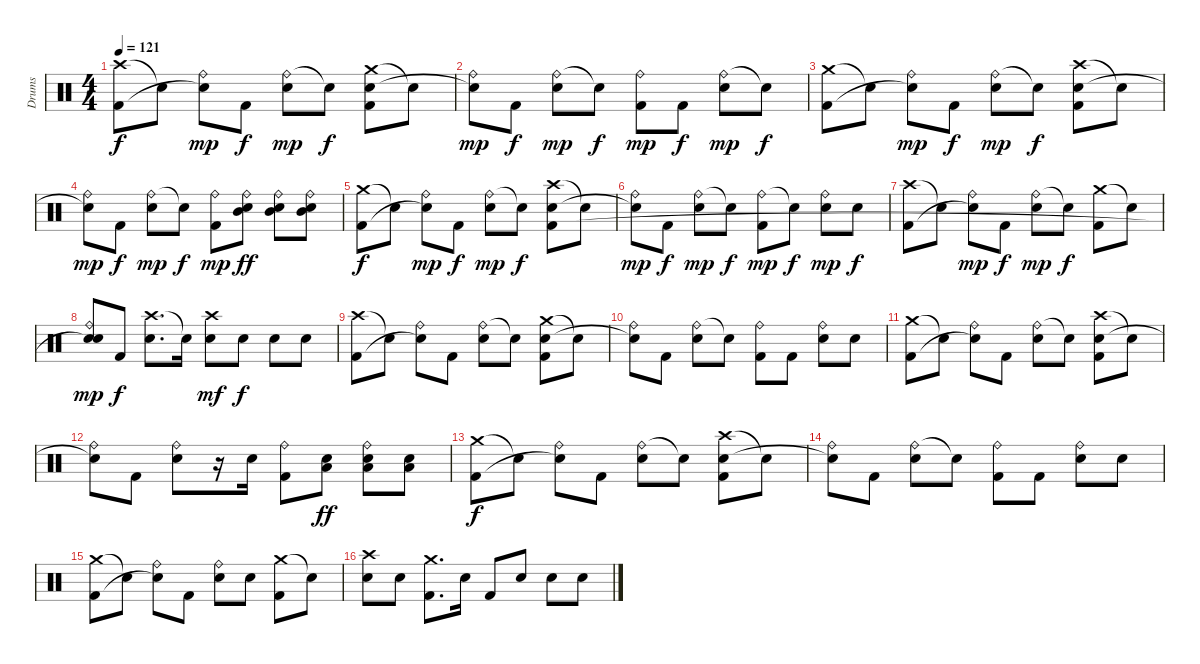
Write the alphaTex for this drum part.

\track ("Drums" "Drums") {instrument percussion}
\staff {score}
\articulation defaults
\ts (4 4)
\tempo 121
\clef neutral
\ks c
("Crash high (hit)" "Kick (hit) 2").8{dy f} "Snare (hit)"{t}.8 ("Ride (bell)" "Snare (hit)"{t}).8{dy mp} "Kick (hit) 2".8{dy f} ("Ride (bell)" "Electric Snare (hit)").8{dy mp} "Snare (hit)"{t}.8{dy f} ("Crash medium (hit)" "Electric Snare (hit)" "Kick (hit) 2").8 "Snare (hit)"{t}.8 |
("Ride (bell)" "Snare (hit)"{t}).8{dy mp} "Kick (hit) 2".8{dy f} ("Ride (bell)" "Electric Snare (hit)").8{dy mp} "Snare (hit)"{t}.8{dy f} ("Ride (bell)" "Kick (hit) 2").8{dy mp} "Kick (hit) 2".8{dy f} ("Ride (bell)" "Electric Snare (hit)").8{dy mp} "Snare (hit)"{t}.8{dy f} |
("Crash medium (hit)" "Kick (hit) 2").8 "Snare (hit)"{t}.8 ("Ride (bell)" "Snare (hit)"{t}).8{dy mp} "Kick (hit) 2".8{dy f} ("Ride (bell)" "Electric Snare (hit)").8{dy mp} "Snare (hit)"{t}.8{dy f} ("Crash high (hit)" "Electric Snare (hit)" "Kick (hit) 2").8 "Snare (hit)"{t}.8 |
("Ride (bell)" "Snare (hit)"{t}).8{dy mp} "Kick (hit) 2".8{dy f} ("Ride (bell)" "Electric Snare (hit)").8{dy mp} "Snare (hit)"{t}.8{dy f} ("Ride (bell)" "Kick (hit) 2").8{dy mp} ("Ride (bell)" "Mid Tom (hit)" "Electric Snare (hit)").8{dy ff} ("Ride (bell)" "Mid Tom (hit)" "Electric Snare (hit)").8 ("Ride (bell)" "Mid Tom (hit)" "Electric Snare (hit)").8 |
("Crash medium (hit)" "Kick (hit) 2").8{dy f} "Snare (hit)"{t}.8 ("Ride (bell)" "Snare (hit)"{t}).8{dy mp} "Kick (hit) 2".8{dy f} ("Ride (bell)" "Electric Snare (hit)").8{dy mp} "Snare (hit)"{t}.8{dy f} ("Crash high (hit)" "Electric Snare (hit)" "Kick (hit) 2").8 "Snare (hit)"{t}.8 |
("Ride (bell)" "Snare (hit)"{t}).8{dy mp} "Kick (hit) 2".8{dy f} ("Ride (bell)" "Electric Snare (hit)").8{dy mp} "Snare (hit)"{t}.8{dy f} ("Ride (bell)" "Kick (hit) 2").8{dy mp} "Snare (hit)"{t}.8{dy f} ("Ride (bell)" "Electric Snare (hit)").8{dy mp} "Electric Snare (hit)".8{dy f} |
("Crash high (hit)" "Kick (hit) 2").8 "Snare (hit)"{t}.8 ("Ride (bell)" "Snare (hit)"{t}).8{dy mp} "Kick (hit) 2".8{dy f} ("Ride (bell)" "Electric Snare (hit)").8{dy mp} "Snare (hit)"{t}.8{dy f} ("Crash medium (hit)" "Kick (hit) 2").8 "Snare (hit)"{t}.8 |
("Ride (bell)" "Electric Snare (hit)" "Snare (hit)"{t}).8{dy mp} "Kick (hit) 2".8{dy f} ("Crash high (hit)" "Electric Snare (hit)").8{d} "Electric Snare (hit)"{t}.16 ("Crash high (hit)" "Electric Snare (hit)").8{dy mf} "Electric Snare (hit)".8{dy f} "Electric Snare (hit)".8 "Electric Snare (hit)".8 |
("Crash high (hit)" "Kick (hit) 2").8 "Snare (hit)"{t}.8 ("Ride (bell)" "Snare (hit)"{t}).8 "Kick (hit) 2".8 ("Ride (bell)" "Electric Snare (hit)").8 "Snare (hit)"{t}.8 ("Crash medium (hit)" "Electric Snare (hit)" "Kick (hit) 2").8 "Snare (hit)"{t}.8 |
("Ride (bell)" "Snare (hit)"{t}).8 "Kick (hit) 2".8 ("Ride (bell)" "Electric Snare (hit)").8 "Snare (hit)"{t}.8 ("Ride (bell)" "Kick (hit) 2").8 "Kick (hit) 2".8 ("Ride (bell)" "Electric Snare (hit)").8 "Electric Snare (hit)".8 |
("Crash medium (hit)" "Kick (hit) 2").8 "Snare (hit)"{t}.8 ("Ride (bell)" "Snare (hit)"{t}).8 "Kick (hit) 2".8 ("Ride (bell)" "Electric Snare (hit)").8 "Snare (hit)"{t}.8 ("Crash high (hit)" "Electric Snare (hit)" "Kick (hit) 2").8 "Snare (hit)"{t}.8 |
("Ride (bell)" "Snare (hit)"{t}).8 "Kick (hit) 2".8 ("Ride (bell)" "Electric Snare (hit)").8 r.16 "Electric Snare (hit)".16 ("Ride (bell)" "Kick (hit) 2").8 ("Low Tom (hit)" "Electric Snare (hit)").8{dy ff} ("Ride (bell)" "Low Tom (hit)" "Electric Snare (hit)").8 ("Low Tom (hit)" "Electric Snare (hit)").8 |
("Crash medium (hit)" "Kick (hit) 2").8{dy f} "Snare (hit)"{t}.8 ("Ride (bell)" "Snare (hit)"{t}).8 "Kick (hit) 2".8 ("Ride (bell)" "Electric Snare (hit)").8 "Snare (hit)"{t}.8 ("Crash high (hit)" "Electric Snare (hit)" "Kick (hit) 2").8 "Snare (hit)"{t}.8 |
("Ride (bell)" "Snare (hit)"{t}).8 "Kick (hit) 2".8 ("Ride (bell)" "Electric Snare (hit)").8 "Snare (hit)"{t}.8 ("Ride (bell)" "Kick (hit) 2").8 "Kick (hit) 2".8 ("Ride (bell)" "Electric Snare (hit)").8 "Electric Snare (hit)".8 |
("Crash medium (hit)" "Kick (hit) 2").8 "Snare (hit)"{t}.8 ("Ride (bell)" "Snare (hit)"{t}).8 "Kick (hit) 2".8 ("Ride (bell)" "Electric Snare (hit)").8 "Electric Snare (hit)".8 ("Crash medium (hit)" "Kick (hit) 2").8 "Snare (hit)"{t}.8 |
("Crash high (hit)" "Electric Snare (hit)").8 "Electric Snare (hit)".8 ("Crash medium (hit)" "Kick (hit) 2").8{d} "Electric Snare (hit)".16 "Kick (hit) 2".8 "Electric Snare (hit)".8 "Electric Snare (hit)".8 "Electric Snare (hit)".8
